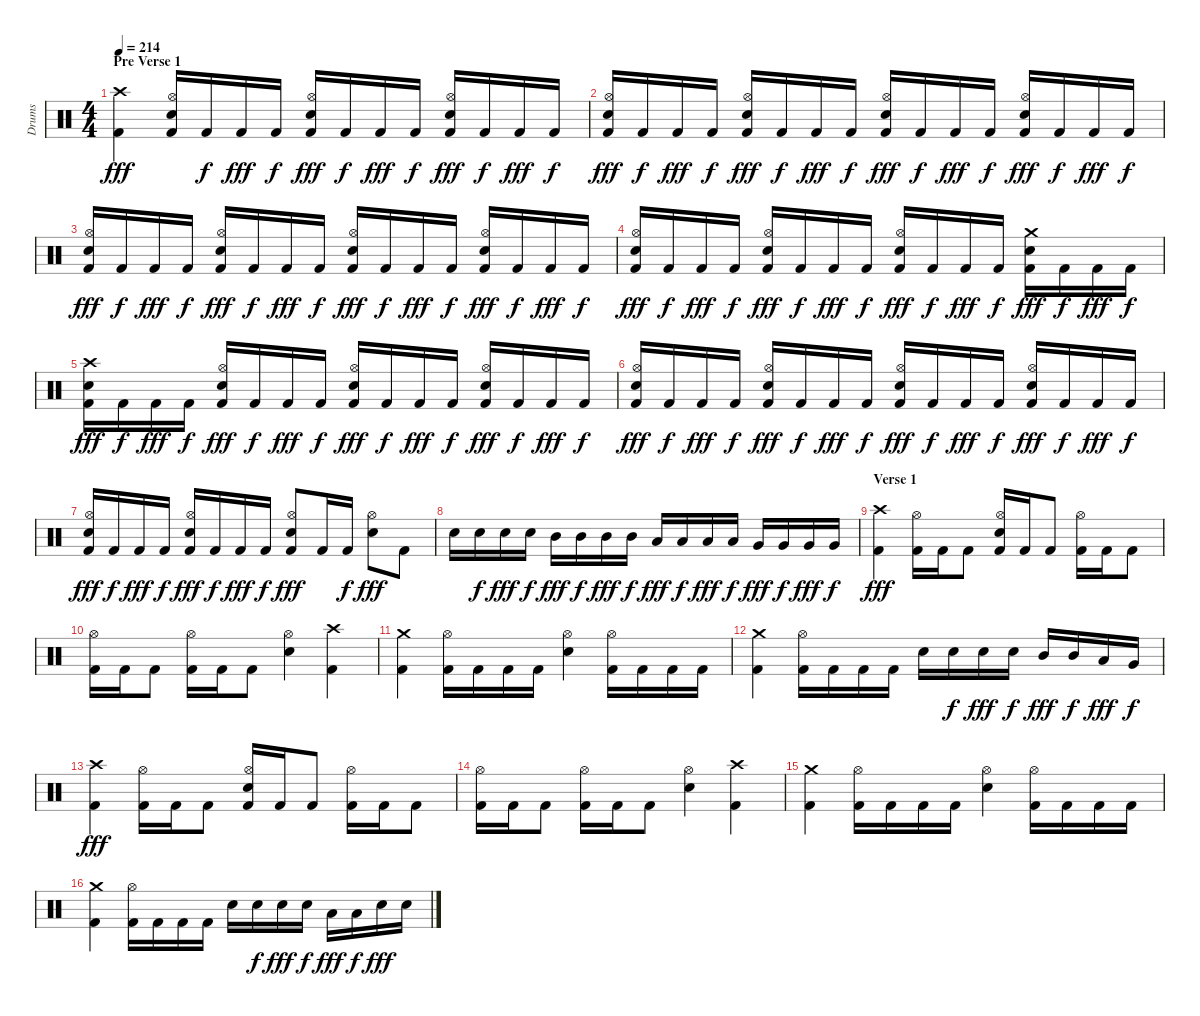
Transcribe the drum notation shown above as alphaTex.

\track ("Drums" "Drums") {instrument percussion}
\staff {score}
\articulation defaults
\ts (4 4)
\section ("" "Pre Verse 1")
\tempo 214
\clef neutral
\ks c
("Crash high (hit)" "Kick (hit) 2").4{dy fff} ("Hi-Hat (open)" "Electric Snare (hit)" "Kick (hit) 2").16 "Kick (hit) 2".16{dy f} "Kick (hit) 2".16{dy fff} "Kick (hit) 2".16{dy f} ("Hi-Hat (open)" "Electric Snare (hit)" "Kick (hit) 2").16{dy fff} "Kick (hit) 2".16{dy f} "Kick (hit) 2".16{dy fff} "Kick (hit) 2".16{dy f} ("Hi-Hat (open)" "Electric Snare (hit)" "Kick (hit) 2").16{dy fff} "Kick (hit) 2".16{dy f} "Kick (hit) 2".16{dy fff} "Kick (hit) 2".16{dy f} |
("Hi-Hat (open)" "Electric Snare (hit)" "Kick (hit) 2").16{dy fff} "Kick (hit) 2".16{dy f} "Kick (hit) 2".16{dy fff} "Kick (hit) 2".16{dy f} ("Hi-Hat (open)" "Electric Snare (hit)" "Kick (hit) 2").16{dy fff} "Kick (hit) 2".16{dy f} "Kick (hit) 2".16{dy fff} "Kick (hit) 2".16{dy f} ("Hi-Hat (open)" "Electric Snare (hit)" "Kick (hit) 2").16{dy fff} "Kick (hit) 2".16{dy f} "Kick (hit) 2".16{dy fff} "Kick (hit) 2".16{dy f} ("Hi-Hat (open)" "Electric Snare (hit)" "Kick (hit) 2").16{dy fff} "Kick (hit) 2".16{dy f} "Kick (hit) 2".16{dy fff} "Kick (hit) 2".16{dy f} |
("Hi-Hat (open)" "Electric Snare (hit)" "Kick (hit) 2").16{dy fff} "Kick (hit) 2".16{dy f} "Kick (hit) 2".16{dy fff} "Kick (hit) 2".16{dy f} ("Hi-Hat (open)" "Electric Snare (hit)" "Kick (hit) 2").16{dy fff} "Kick (hit) 2".16{dy f} "Kick (hit) 2".16{dy fff} "Kick (hit) 2".16{dy f} ("Hi-Hat (open)" "Electric Snare (hit)" "Kick (hit) 2").16{dy fff} "Kick (hit) 2".16{dy f} "Kick (hit) 2".16{dy fff} "Kick (hit) 2".16{dy f} ("Hi-Hat (open)" "Electric Snare (hit)" "Kick (hit) 2").16{dy fff} "Kick (hit) 2".16{dy f} "Kick (hit) 2".16{dy fff} "Kick (hit) 2".16{dy f} |
("Hi-Hat (open)" "Electric Snare (hit)" "Kick (hit) 2").16{dy fff} "Kick (hit) 2".16{dy f} "Kick (hit) 2".16{dy fff} "Kick (hit) 2".16{dy f} ("Hi-Hat (open)" "Electric Snare (hit)" "Kick (hit) 2").16{dy fff} "Kick (hit) 2".16{dy f} "Kick (hit) 2".16{dy fff} "Kick (hit) 2".16{dy f} ("Hi-Hat (open)" "Electric Snare (hit)" "Kick (hit) 2").16{dy fff} "Kick (hit) 2".16{dy f} "Kick (hit) 2".16{dy fff} "Kick (hit) 2".16{dy f} ("Crash medium (hit)" "Electric Snare (hit)" "Kick (hit) 2").16{dy fff} "Kick (hit) 2".16{dy f} "Kick (hit) 2".16{dy fff} "Kick (hit) 2".16{dy f} |
("Crash high (hit)" "Electric Snare (hit)" "Kick (hit) 2").16{dy fff} "Kick (hit) 2".16{dy f} "Kick (hit) 2".16{dy fff} "Kick (hit) 2".16{dy f} ("Hi-Hat (open)" "Electric Snare (hit)" "Kick (hit) 2").16{dy fff} "Kick (hit) 2".16{dy f} "Kick (hit) 2".16{dy fff} "Kick (hit) 2".16{dy f} ("Hi-Hat (open)" "Electric Snare (hit)" "Kick (hit) 2").16{dy fff} "Kick (hit) 2".16{dy f} "Kick (hit) 2".16{dy fff} "Kick (hit) 2".16{dy f} ("Hi-Hat (open)" "Electric Snare (hit)" "Kick (hit) 2").16{dy fff} "Kick (hit) 2".16{dy f} "Kick (hit) 2".16{dy fff} "Kick (hit) 2".16{dy f} |
("Hi-Hat (open)" "Electric Snare (hit)" "Kick (hit) 2").16{dy fff} "Kick (hit) 2".16{dy f} "Kick (hit) 2".16{dy fff} "Kick (hit) 2".16{dy f} ("Hi-Hat (open)" "Electric Snare (hit)" "Kick (hit) 2").16{dy fff} "Kick (hit) 2".16{dy f} "Kick (hit) 2".16{dy fff} "Kick (hit) 2".16{dy f} ("Hi-Hat (open)" "Electric Snare (hit)" "Kick (hit) 2").16{dy fff} "Kick (hit) 2".16{dy f} "Kick (hit) 2".16{dy fff} "Kick (hit) 2".16{dy f} ("Hi-Hat (open)" "Electric Snare (hit)" "Kick (hit) 2").16{dy fff} "Kick (hit) 2".16{dy f} "Kick (hit) 2".16{dy fff} "Kick (hit) 2".16{dy f} |
("Hi-Hat (open)" "Electric Snare (hit)" "Kick (hit) 2").16{dy fff} "Kick (hit) 2".16{dy f} "Kick (hit) 2".16{dy fff} "Kick (hit) 2".16{dy f} ("Hi-Hat (open)" "Electric Snare (hit)" "Kick (hit) 2").16{dy fff} "Kick (hit) 2".16{dy f} "Kick (hit) 2".16{dy fff} "Kick (hit) 2".16{dy f} ("Hi-Hat (open)" "Electric Snare (hit)" "Kick (hit) 2").8{dy fff} "Kick (hit) 2".16 "Kick (hit) 2".16{dy f} ("Hi-Hat (open)" "Electric Snare (hit)").8{dy fff} "Kick (hit) 2".8 |
"Electric Snare (hit)".16 "Electric Snare (hit)".16{dy f} "Electric Snare (hit)".16{dy fff} "Electric Snare (hit)".16{dy f} "Mid Tom (hit)".16{dy fff} "Mid Tom (hit)".16{dy f} "Mid Tom (hit)".16{dy fff} "Mid Tom (hit)".16{dy f} "Low Tom (hit)".16{dy fff} "Low Tom (hit)".16{dy f} "Low Tom (hit)".16{dy fff} "Low Tom (hit)".16{dy f} "Very Low Tom (hit)".16{dy fff} "Very Low Tom (hit)".16{dy f} "Very Low Tom (hit)".16{dy fff} "Very Low Tom (hit)".16{dy f} |
\section ("" "Verse 1")
("Crash high (hit)" "Kick (hit) 2").4{dy fff} ("Hi-Hat (open)" "Kick (hit) 2").16 "Kick (hit) 2".16 "Kick (hit) 2".8 ("Hi-Hat (open)" "Electric Snare (hit)" "Kick (hit) 2").16 "Kick (hit) 2".16 "Kick (hit) 2".8 ("Hi-Hat (open)" "Kick (hit) 2").16 "Kick (hit) 2".16 "Kick (hit) 2".8 |
("Hi-Hat (open)" "Kick (hit) 2").16 "Kick (hit) 2".16 "Kick (hit) 2".8 ("Hi-Hat (open)" "Kick (hit) 2").16 "Kick (hit) 2".16 "Kick (hit) 2".8 ("Hi-Hat (open)" "Electric Snare (hit)").4 ("Crash high (hit)" "Kick (hit) 2").4 |
("Crash medium (hit)" "Kick (hit) 2").4 ("Hi-Hat (open)" "Kick (hit) 2").16 "Kick (hit) 2".16 "Kick (hit) 2".16 "Kick (hit) 2".16 ("Hi-Hat (open)" "Electric Snare (hit)").4 ("Hi-Hat (open)" "Kick (hit) 2").16 "Kick (hit) 2".16 "Kick (hit) 2".16 "Kick (hit) 2".16 |
("Crash medium (hit)" "Kick (hit) 2").4 ("Hi-Hat (open)" "Kick (hit) 2").16 "Kick (hit) 2".16 "Kick (hit) 2".16 "Kick (hit) 2".16 "Electric Snare (hit)".16 "Electric Snare (hit)".16{dy f} "Electric Snare (hit)".16{dy fff} "Electric Snare (hit)".16{dy f} "Mid Tom (hit)".16{dy fff} "Mid Tom (hit)".16{dy f} "Low Tom (hit)".16{dy fff} "Very Low Tom (hit)".16{dy f} |
("Crash high (hit)" "Kick (hit) 2").4{dy fff} ("Hi-Hat (open)" "Kick (hit) 2").16 "Kick (hit) 2".16 "Kick (hit) 2".8 ("Hi-Hat (open)" "Electric Snare (hit)" "Kick (hit) 2").16 "Kick (hit) 2".16 "Kick (hit) 2".8 ("Hi-Hat (open)" "Kick (hit) 2").16 "Kick (hit) 2".16 "Kick (hit) 2".8 |
("Hi-Hat (open)" "Kick (hit) 2").16 "Kick (hit) 2".16 "Kick (hit) 2".8 ("Hi-Hat (open)" "Kick (hit) 2").16 "Kick (hit) 2".16 "Kick (hit) 2".8 ("Hi-Hat (open)" "Electric Snare (hit)").4 ("Crash high (hit)" "Kick (hit) 2").4 |
("Crash medium (hit)" "Kick (hit) 2").4 ("Hi-Hat (open)" "Kick (hit) 2").16 "Kick (hit) 2".16 "Kick (hit) 2".16 "Kick (hit) 2".16 ("Hi-Hat (open)" "Electric Snare (hit)").4 ("Hi-Hat (open)" "Kick (hit) 2").16 "Kick (hit) 2".16 "Kick (hit) 2".16 "Kick (hit) 2".16 |
("Crash medium (hit)" "Kick (hit) 2").4 ("Hi-Hat (open)" "Kick (hit) 2").16 "Kick (hit) 2".16 "Kick (hit) 2".16 "Kick (hit) 2".16 "Electric Snare (hit)".16 "Electric Snare (hit)".16{dy f} "Electric Snare (hit)".16{dy fff} "Electric Snare (hit)".16{dy f} "Low Tom (hit)".16{dy fff} "Low Tom (hit)".16{dy f} "Electric Snare (hit)".16{dy fff} "Electric Snare (hit)".16
